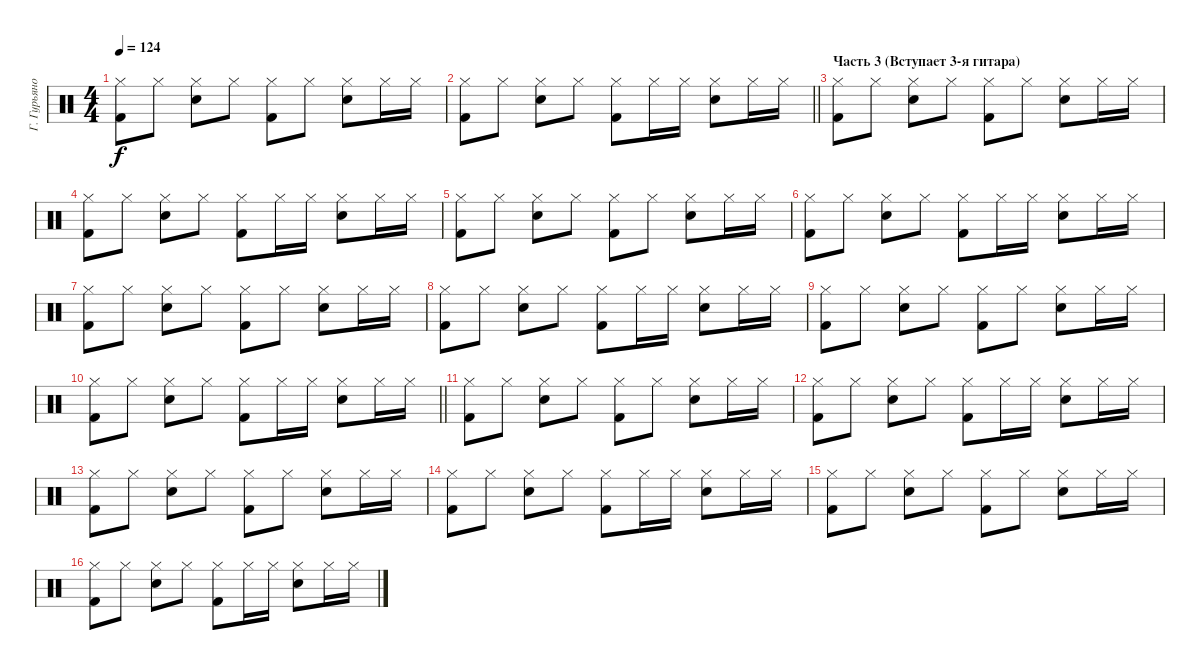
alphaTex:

\track ("Г. Гурьянов" "Г. Гурьяно") {instrument percussion}
\staff
\articulation defaults
\ts (4 4)
\tempo 124
\clef neutral
\ks c
("Hi-Hat (closed)" "Kick (hit) 2").8{dy f} "Hi-Hat (closed)".8 ("Hi-Hat (closed)" "Snare (hit) 2").8 "Hi-Hat (closed)".8 ("Hi-Hat (closed)" "Kick (hit) 2").8 "Hi-Hat (closed)".8 ("Hi-Hat (closed)" "Snare (hit) 2").8 "Hi-Hat (closed)".16 "Hi-Hat (closed)".16 |
\barLineRight lightlight
("Hi-Hat (closed)" "Kick (hit) 2").8 "Hi-Hat (closed)".8 ("Hi-Hat (closed)" "Snare (hit) 2").8 "Hi-Hat (closed)".8 ("Hi-Hat (closed)" "Kick (hit) 2").8 "Hi-Hat (closed)".16 "Hi-Hat (closed)".16 ("Hi-Hat (closed)" "Snare (hit) 2").8 "Hi-Hat (closed)".16 "Hi-Hat (closed)".16 |
\section ("" "Часть 3 (Вступает 3-я гитара)")
("Hi-Hat (closed)" "Kick (hit) 2").8 "Hi-Hat (closed)".8 ("Hi-Hat (closed)" "Snare (hit) 2").8 "Hi-Hat (closed)".8 ("Hi-Hat (closed)" "Kick (hit) 2").8 "Hi-Hat (closed)".8 ("Hi-Hat (closed)" "Snare (hit) 2").8 "Hi-Hat (closed)".16 "Hi-Hat (closed)".16 |
("Hi-Hat (closed)" "Kick (hit) 2").8 "Hi-Hat (closed)".8 ("Hi-Hat (closed)" "Snare (hit) 2").8 "Hi-Hat (closed)".8 ("Hi-Hat (closed)" "Kick (hit) 2").8 "Hi-Hat (closed)".16 "Hi-Hat (closed)".16 ("Hi-Hat (closed)" "Snare (hit) 2").8 "Hi-Hat (closed)".16 "Hi-Hat (closed)".16 |
("Hi-Hat (closed)" "Kick (hit) 2").8 "Hi-Hat (closed)".8 ("Hi-Hat (closed)" "Snare (hit) 2").8 "Hi-Hat (closed)".8 ("Hi-Hat (closed)" "Kick (hit) 2").8 "Hi-Hat (closed)".8 ("Hi-Hat (closed)" "Snare (hit) 2").8 "Hi-Hat (closed)".16 "Hi-Hat (closed)".16 |
("Hi-Hat (closed)" "Kick (hit) 2").8 "Hi-Hat (closed)".8 ("Hi-Hat (closed)" "Snare (hit) 2").8 "Hi-Hat (closed)".8 ("Hi-Hat (closed)" "Kick (hit) 2").8 "Hi-Hat (closed)".16 "Hi-Hat (closed)".16 ("Hi-Hat (closed)" "Snare (hit) 2").8 "Hi-Hat (closed)".16 "Hi-Hat (closed)".16 |
("Hi-Hat (closed)" "Kick (hit) 2").8 "Hi-Hat (closed)".8 ("Hi-Hat (closed)" "Snare (hit) 2").8 "Hi-Hat (closed)".8 ("Hi-Hat (closed)" "Kick (hit) 2").8 "Hi-Hat (closed)".8 ("Hi-Hat (closed)" "Snare (hit) 2").8 "Hi-Hat (closed)".16 "Hi-Hat (closed)".16 |
("Hi-Hat (closed)" "Kick (hit) 2").8 "Hi-Hat (closed)".8 ("Hi-Hat (closed)" "Snare (hit) 2").8 "Hi-Hat (closed)".8 ("Hi-Hat (closed)" "Kick (hit) 2").8 "Hi-Hat (closed)".16 "Hi-Hat (closed)".16 ("Hi-Hat (closed)" "Snare (hit) 2").8 "Hi-Hat (closed)".16 "Hi-Hat (closed)".16 |
("Hi-Hat (closed)" "Kick (hit) 2").8 "Hi-Hat (closed)".8 ("Hi-Hat (closed)" "Snare (hit) 2").8 "Hi-Hat (closed)".8 ("Hi-Hat (closed)" "Kick (hit) 2").8 "Hi-Hat (closed)".8 ("Hi-Hat (closed)" "Snare (hit) 2").8 "Hi-Hat (closed)".16 "Hi-Hat (closed)".16 |
\barLineRight lightlight
("Hi-Hat (closed)" "Kick (hit) 2").8 "Hi-Hat (closed)".8 ("Hi-Hat (closed)" "Snare (hit) 2").8 "Hi-Hat (closed)".8 ("Hi-Hat (closed)" "Kick (hit) 2").8 "Hi-Hat (closed)".16 "Hi-Hat (closed)".16 ("Hi-Hat (closed)" "Snare (hit) 2").8 "Hi-Hat (closed)".16 "Hi-Hat (closed)".16 |
("Hi-Hat (closed)" "Kick (hit) 2").8 "Hi-Hat (closed)".8 ("Hi-Hat (closed)" "Snare (hit) 2").8 "Hi-Hat (closed)".8 ("Hi-Hat (closed)" "Kick (hit) 2").8 "Hi-Hat (closed)".8 ("Hi-Hat (closed)" "Snare (hit) 2").8 "Hi-Hat (closed)".16 "Hi-Hat (closed)".16 |
("Hi-Hat (closed)" "Kick (hit) 2").8 "Hi-Hat (closed)".8 ("Hi-Hat (closed)" "Snare (hit) 2").8 "Hi-Hat (closed)".8 ("Hi-Hat (closed)" "Kick (hit) 2").8 "Hi-Hat (closed)".16 "Hi-Hat (closed)".16 ("Hi-Hat (closed)" "Snare (hit) 2").8 "Hi-Hat (closed)".16 "Hi-Hat (closed)".16 |
("Hi-Hat (closed)" "Kick (hit) 2").8 "Hi-Hat (closed)".8 ("Hi-Hat (closed)" "Snare (hit) 2").8 "Hi-Hat (closed)".8 ("Hi-Hat (closed)" "Kick (hit) 2").8 "Hi-Hat (closed)".8 ("Hi-Hat (closed)" "Snare (hit) 2").8 "Hi-Hat (closed)".16 "Hi-Hat (closed)".16 |
("Hi-Hat (closed)" "Kick (hit) 2").8 "Hi-Hat (closed)".8 ("Hi-Hat (closed)" "Snare (hit) 2").8 "Hi-Hat (closed)".8 ("Hi-Hat (closed)" "Kick (hit) 2").8 "Hi-Hat (closed)".16 "Hi-Hat (closed)".16 ("Hi-Hat (closed)" "Snare (hit) 2").8 "Hi-Hat (closed)".16 "Hi-Hat (closed)".16 |
("Hi-Hat (closed)" "Kick (hit) 2").8 "Hi-Hat (closed)".8 ("Hi-Hat (closed)" "Snare (hit) 2").8 "Hi-Hat (closed)".8 ("Hi-Hat (closed)" "Kick (hit) 2").8 "Hi-Hat (closed)".8 ("Hi-Hat (closed)" "Snare (hit) 2").8 "Hi-Hat (closed)".16 "Hi-Hat (closed)".16 |
("Hi-Hat (closed)" "Kick (hit) 2").8 "Hi-Hat (closed)".8 ("Hi-Hat (closed)" "Snare (hit) 2").8 "Hi-Hat (closed)".8 ("Hi-Hat (closed)" "Kick (hit) 2").8 "Hi-Hat (closed)".16 "Hi-Hat (closed)".16 ("Hi-Hat (closed)" "Snare (hit) 2").8 "Hi-Hat (closed)".16 "Hi-Hat (closed)".16
